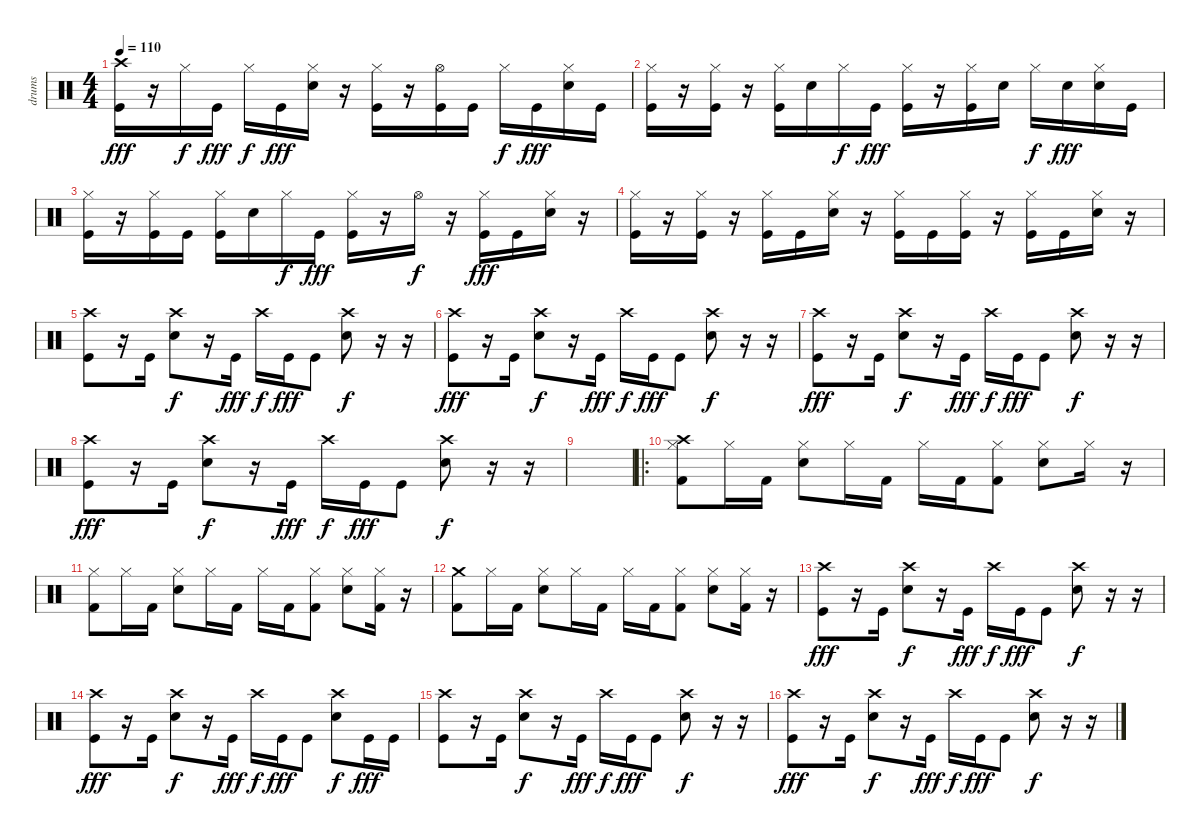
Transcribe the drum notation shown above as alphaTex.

\track ("drums" "drums") {instrument percussion}
\staff {score}
\articulation defaults
\ts (4 4)
\tempo 110
\clef neutral
\ks c
("Crash high (hit)" "Kick (hit)").16{dy fff} r.16 "Hi-Hat (closed)".16{dy f} "Kick (hit)".16{dy fff} "Hi-Hat (closed)".16{dy f} "Kick (hit)".16{dy fff} ("Hi-Hat (closed)" "Electric Snare (hit)").16 r.16 ("Hi-Hat (closed)" "Kick (hit)").16 r.16 ("Hi-Hat (open)" "Kick (hit)").16 "Kick (hit)".16 "Hi-Hat (closed)".16{dy f} "Kick (hit)".16{dy fff} ("Hi-Hat (closed)" "Electric Snare (hit)").16 "Kick (hit)".16 |
("Hi-Hat (closed)" "Kick (hit)").16 r.16 ("Hi-Hat (closed)" "Kick (hit)").16 r.16 ("Hi-Hat (closed)" "Kick (hit)").16 "Electric Snare (hit)".16 "Hi-Hat (closed)".16{dy f} "Kick (hit)".16{dy fff} ("Hi-Hat (closed)" "Kick (hit)").16 r.16 ("Hi-Hat (closed)" "Kick (hit)").16 "Electric Snare (hit)".16 "Hi-Hat (closed)".16{dy f} "Electric Snare (hit)".16{dy fff} ("Hi-Hat (closed)" "Electric Snare (hit)").16 "Kick (hit)".16 |
("Hi-Hat (closed)" "Kick (hit)").16 r.16 ("Hi-Hat (closed)" "Kick (hit)").16 "Kick (hit)".16 ("Hi-Hat (closed)" "Kick (hit)").16 "Electric Snare (hit)".16 "Hi-Hat (closed)".16{dy f} "Kick (hit)".16{dy fff} ("Hi-Hat (closed)" "Kick (hit)").16 r.16 "Hi-Hat (open)".16{dy f} r.16 ("Hi-Hat (closed)" "Kick (hit)").16{dy fff} "Kick (hit)".16 ("Hi-Hat (closed)" "Electric Snare (hit)").16 r.16 |
("Hi-Hat (closed)" "Kick (hit)").16 r.16 ("Hi-Hat (closed)" "Kick (hit)").16 r.16 ("Hi-Hat (closed)" "Kick (hit)").16 "Kick (hit)".16 ("Hi-Hat (closed)" "Electric Snare (hit)").16 r.16 ("Hi-Hat (closed)" "Kick (hit)").16 "Kick (hit)".16 ("Hi-Hat (closed)" "Kick (hit)").16 r.16 ("Hi-Hat (closed)" "Kick (hit)").16 "Kick (hit)".16 ("Hi-Hat (closed)" "Electric Snare (hit)").16 r.16 |
("Crash high (hit)" "Kick (hit)").8 r.16 "Kick (hit)".16 ("Crash high (hit)" "Electric Snare (hit)").8{dy f} r.16 "Kick (hit)".16{dy fff} "Crash high (hit)".16{dy f} "Kick (hit)".16{dy fff} "Kick (hit)".8 ("Crash high (hit)" "Electric Snare (hit)").8{dy f} r.16 r.16 |
("Crash high (hit)" "Kick (hit)").8{dy fff} r.16 "Kick (hit)".16 ("Crash high (hit)" "Electric Snare (hit)").8{dy f} r.16 "Kick (hit)".16{dy fff} "Crash high (hit)".16{dy f} "Kick (hit)".16{dy fff} "Kick (hit)".8 ("Crash high (hit)" "Electric Snare (hit)").8{dy f} r.16 r.16 |
("Crash high (hit)" "Kick (hit)").8{dy fff} r.16 "Kick (hit)".16 ("Crash high (hit)" "Electric Snare (hit)").8{dy f} r.16 "Kick (hit)".16{dy fff} "Crash high (hit)".16{dy f} "Kick (hit)".16{dy fff} "Kick (hit)".8 ("Crash high (hit)" "Electric Snare (hit)").8{dy f} r.16 r.16 |
("Crash high (hit)" "Kick (hit)").8{dy fff} r.16 "Kick (hit)".16 ("Crash high (hit)" "Electric Snare (hit)").8{dy f} r.16 "Kick (hit)".16{dy fff} "Crash high (hit)".16{dy f} "Kick (hit)".16{dy fff} "Kick (hit)".8 ("Crash high (hit)" "Electric Snare (hit)").8{dy f} r.16 r.16 |
|
\ro
("Crash high (hit)" "Hi-Hat (closed)" "Kick (hit) 2").8 "Hi-Hat (closed)".16 "Kick (hit) 2".16 ("Hi-Hat (closed)" "Electric Snare (hit)").8 "Hi-Hat (closed)".16 "Kick (hit) 2".16 "Hi-Hat (closed)".16 "Kick (hit) 2".16 ("Hi-Hat (closed)" "Kick (hit) 2").8 ("Hi-Hat (closed)" "Electric Snare (hit)").8 "Hi-Hat (closed)".16 r.16 |
("Hi-Hat (closed)" "Kick (hit) 2").8 "Hi-Hat (closed)".16 "Kick (hit) 2".16 ("Hi-Hat (closed)" "Electric Snare (hit)").8 "Hi-Hat (closed)".16 "Kick (hit) 2".16 "Hi-Hat (closed)".16 "Kick (hit) 2".16 ("Hi-Hat (closed)" "Kick (hit) 2").8 ("Hi-Hat (closed)" "Electric Snare (hit)").8 ("Hi-Hat (closed)" "Kick (hit) 2").16 r.16 |
("Crash medium (hit)" "Kick (hit) 2").8 "Hi-Hat (closed)".16 "Kick (hit) 2".16 ("Hi-Hat (closed)" "Electric Snare (hit)").8 "Hi-Hat (closed)".16 "Kick (hit) 2".16 "Hi-Hat (closed)".16 "Kick (hit) 2".16 ("Hi-Hat (closed)" "Kick (hit) 2").8 ("Hi-Hat (closed)" "Electric Snare (hit)").8 ("Hi-Hat (closed)" "Kick (hit) 2").16 r.16 |
("Crash high (hit)" "Kick (hit)").8{dy fff} r.16 "Kick (hit)".16 ("Crash high (hit)" "Electric Snare (hit)").8{dy f} r.16 "Kick (hit)".16{dy fff} "Crash high (hit)".16{dy f} "Kick (hit)".16{dy fff} "Kick (hit)".8 ("Crash high (hit)" "Electric Snare (hit)").8{dy f} r.16 r.16 |
("Crash high (hit)" "Kick (hit)").8{dy fff} r.16 "Kick (hit)".16 ("Crash high (hit)" "Electric Snare (hit)").8{dy f} r.16 "Kick (hit)".16{dy fff} "Crash high (hit)".16{dy f} "Kick (hit)".16{dy fff} "Kick (hit)".8 ("Crash high (hit)" "Electric Snare (hit)").8{dy f} "Kick (hit)".16{dy fff} "Kick (hit)".16 |
("Crash high (hit)" "Kick (hit)").8 r.16 "Kick (hit)".16 ("Crash high (hit)" "Electric Snare (hit)").8{dy f} r.16 "Kick (hit)".16{dy fff} "Crash high (hit)".16{dy f} "Kick (hit)".16{dy fff} "Kick (hit)".8 ("Crash high (hit)" "Electric Snare (hit)").8{dy f} r.16 r.16 |
("Crash high (hit)" "Kick (hit)").8{dy fff} r.16 "Kick (hit)".16 ("Crash high (hit)" "Electric Snare (hit)").8{dy f} r.16 "Kick (hit)".16{dy fff} "Crash high (hit)".16{dy f} "Kick (hit)".16{dy fff} "Kick (hit)".8 ("Crash high (hit)" "Electric Snare (hit)").8{dy f} r.16 r.16
